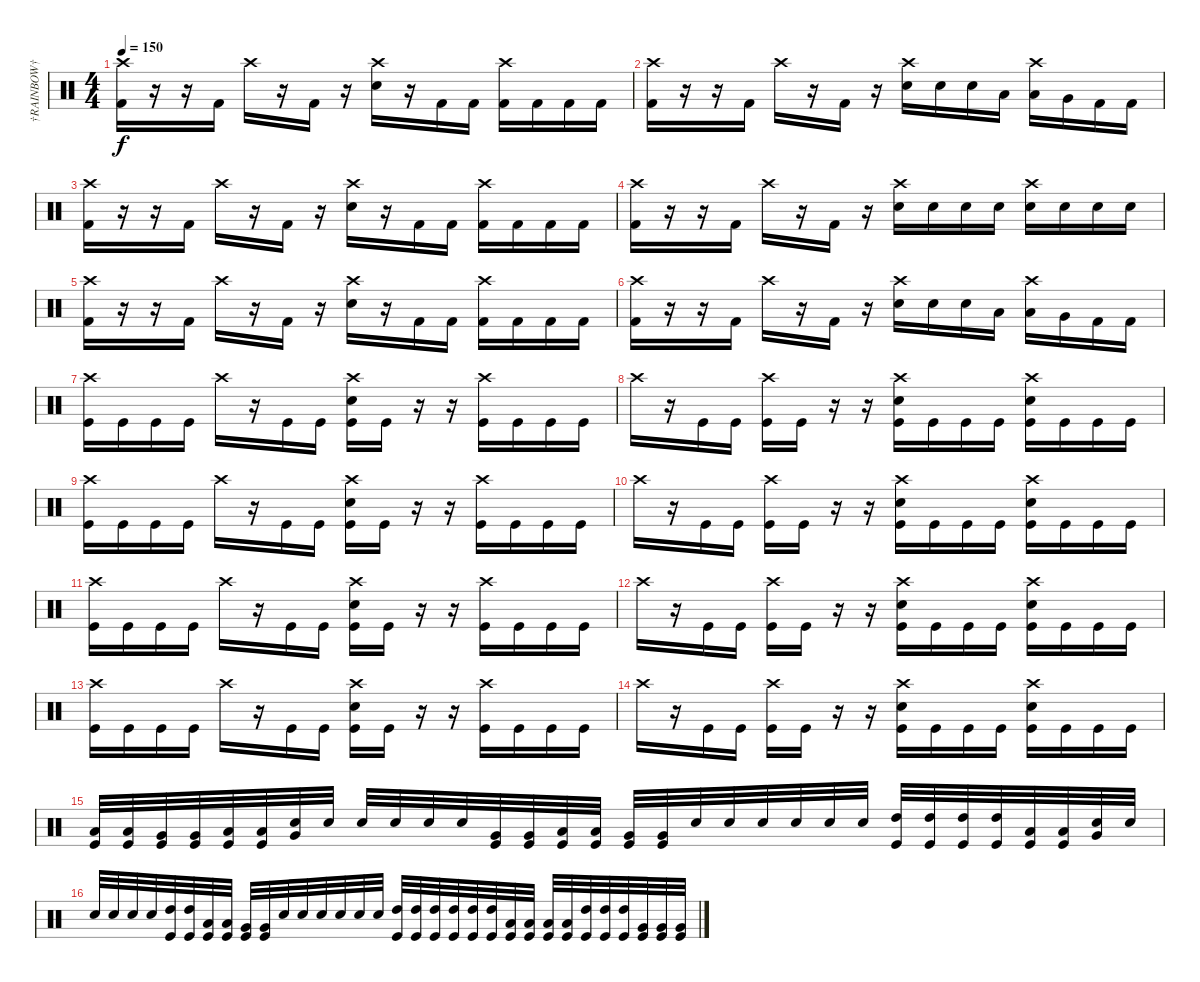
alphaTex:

\track ("†RAINBOW†" "†RAINBOW†") {instrument percussion}
\staff {score}
\articulation defaults
\ts (4 4)
\tempo 150
\clef neutral
\ks c
("Crash high (hit)" "Kick (hit) 2").16{dy f} r.16 r.16 "Kick (hit) 2".16 "Crash high (hit)".16 r.16 "Kick (hit) 2".16 r.16 ("Crash high (hit)" "Electric Snare (hit)").16 r.16 "Kick (hit) 2".16 "Kick (hit) 2".16 ("Crash high (hit)" "Kick (hit) 2").16 "Kick (hit) 2".16 "Kick (hit) 2".16 "Kick (hit) 2".16 |
("Crash high (hit)" "Kick (hit) 2").16 r.16 r.16 "Kick (hit) 2".16 "Crash high (hit)".16 r.16 "Kick (hit) 2".16 r.16 ("Crash high (hit)" "Electric Snare (hit)").16 "Electric Snare (hit)".16 "Electric Snare (hit)".16 "Low Tom (hit)".16 ("Crash high (hit)" "Low Tom (hit)").16 "Very Low Tom (hit)".16 "Kick (hit) 2".16 "Kick (hit) 2".16 |
("Crash high (hit)" "Kick (hit) 2").16 r.16 r.16 "Kick (hit) 2".16 "Crash high (hit)".16 r.16 "Kick (hit) 2".16 r.16 ("Crash high (hit)" "Electric Snare (hit)").16 r.16 "Kick (hit) 2".16 "Kick (hit) 2".16 ("Crash high (hit)" "Kick (hit) 2").16 "Kick (hit) 2".16 "Kick (hit) 2".16 "Kick (hit) 2".16 |
("Crash high (hit)" "Kick (hit) 2").16 r.16 r.16 "Kick (hit) 2".16 "Crash high (hit)".16 r.16 "Kick (hit) 2".16 r.16 ("Crash high (hit)" "Electric Snare (hit)").16 "Electric Snare (hit)".16 "Electric Snare (hit)".16 "Electric Snare (hit)".16 ("Crash high (hit)" "Electric Snare (hit)").16 "Electric Snare (hit)".16 "Electric Snare (hit)".16 "Electric Snare (hit)".16 |
("Crash high (hit)" "Kick (hit) 2").16 r.16 r.16 "Kick (hit) 2".16 "Crash high (hit)".16 r.16 "Kick (hit) 2".16 r.16 ("Crash high (hit)" "Electric Snare (hit)").16 r.16 "Kick (hit) 2".16 "Kick (hit) 2".16 ("Crash high (hit)" "Kick (hit) 2").16 "Kick (hit) 2".16 "Kick (hit) 2".16 "Kick (hit) 2".16 |
("Crash high (hit)" "Kick (hit) 2").16 r.16 r.16 "Kick (hit) 2".16 "Crash high (hit)".16 r.16 "Kick (hit) 2".16 r.16 ("Crash high (hit)" "Electric Snare (hit)").16 "Electric Snare (hit)".16 "Electric Snare (hit)".16 "Low Tom (hit)".16 ("Crash high (hit)" "Low Tom (hit)").16 "Very Low Tom (hit)".16 "Kick (hit) 2".16 "Kick (hit) 2".16 |
("Crash high (hit)" "Kick (hit)").16 "Kick (hit)".16 "Kick (hit)".16 "Kick (hit)".16 "Crash high (hit)".16 r.16 "Kick (hit)".16 "Kick (hit)".16 ("Crash high (hit)" "Electric Snare (hit)" "Kick (hit)").16 "Kick (hit)".16 r.16 r.16 ("Crash high (hit)" "Kick (hit)").16 "Kick (hit)".16 "Kick (hit)".16 "Kick (hit)".16 |
"Crash high (hit)".16 r.16 "Kick (hit)".16 "Kick (hit)".16 ("Crash high (hit)" "Kick (hit)").16 "Kick (hit)".16 r.16 r.16 ("Crash high (hit)" "Electric Snare (hit)" "Kick (hit)").16 "Kick (hit)".16 "Kick (hit)".16 "Kick (hit)".16 ("Crash high (hit)" "Electric Snare (hit)" "Kick (hit)").16 "Kick (hit)".16 "Kick (hit)".16 "Kick (hit)".16 |
("Crash high (hit)" "Kick (hit)").16 "Kick (hit)".16 "Kick (hit)".16 "Kick (hit)".16 "Crash high (hit)".16 r.16 "Kick (hit)".16 "Kick (hit)".16 ("Crash high (hit)" "Electric Snare (hit)" "Kick (hit)").16 "Kick (hit)".16 r.16 r.16 ("Crash high (hit)" "Kick (hit)").16 "Kick (hit)".16 "Kick (hit)".16 "Kick (hit)".16 |
"Crash high (hit)".16 r.16 "Kick (hit)".16 "Kick (hit)".16 ("Crash high (hit)" "Kick (hit)").16 "Kick (hit)".16 r.16 r.16 ("Crash high (hit)" "Electric Snare (hit)" "Kick (hit)").16 "Kick (hit)".16 "Kick (hit)".16 "Kick (hit)".16 ("Crash high (hit)" "Electric Snare (hit)" "Kick (hit)").16 "Kick (hit)".16 "Kick (hit)".16 "Kick (hit)".16 |
("Crash high (hit)" "Kick (hit)").16 "Kick (hit)".16 "Kick (hit)".16 "Kick (hit)".16 "Crash high (hit)".16 r.16 "Kick (hit)".16 "Kick (hit)".16 ("Crash high (hit)" "Electric Snare (hit)" "Kick (hit)").16 "Kick (hit)".16 r.16 r.16 ("Crash high (hit)" "Kick (hit)").16 "Kick (hit)".16 "Kick (hit)".16 "Kick (hit)".16 |
"Crash high (hit)".16 r.16 "Kick (hit)".16 "Kick (hit)".16 ("Crash high (hit)" "Kick (hit)").16 "Kick (hit)".16 r.16 r.16 ("Crash high (hit)" "Electric Snare (hit)" "Kick (hit)").16 "Kick (hit)".16 "Kick (hit)".16 "Kick (hit)".16 ("Crash high (hit)" "Electric Snare (hit)" "Kick (hit)").16 "Kick (hit)".16 "Kick (hit)".16 "Kick (hit)".16 |
("Crash high (hit)" "Kick (hit)").16 "Kick (hit)".16 "Kick (hit)".16 "Kick (hit)".16 "Crash high (hit)".16 r.16 "Kick (hit)".16 "Kick (hit)".16 ("Crash high (hit)" "Electric Snare (hit)" "Kick (hit)").16 "Kick (hit)".16 r.16 r.16 ("Crash high (hit)" "Kick (hit)").16 "Kick (hit)".16 "Kick (hit)".16 "Kick (hit)".16 |
"Crash high (hit)".16 r.16 "Kick (hit)".16 "Kick (hit)".16 ("Crash high (hit)" "Kick (hit)").16 "Kick (hit)".16 r.16 r.16 ("Crash high (hit)" "Electric Snare (hit)" "Kick (hit)").16 "Kick (hit)".16 "Kick (hit)".16 "Kick (hit)".16 ("Crash high (hit)" "Electric Snare (hit)" "Kick (hit)").16 "Kick (hit)".16 "Kick (hit)".16 "Kick (hit)".16 |
("Low Tom (hit)" "Kick (hit)").32 ("Low Tom (hit)" "Kick (hit)").32 ("Very Low Tom (hit)" "Kick (hit)").32 ("Very Low Tom (hit)" "Kick (hit)").32 ("Low Tom (hit)" "Kick (hit)").32 ("Low Tom (hit)" "Kick (hit)").32 ("Very Low Tom (hit)" "Electric Snare (hit)").32 "Electric Snare (hit)".32 "Electric Snare (hit)".32 "Electric Snare (hit)".32 "Electric Snare (hit)".32 "Electric Snare (hit)".32 ("Very Low Tom (hit)" "Kick (hit)").32 ("Very Low Tom (hit)" "Kick (hit)").32 ("Low Floor Tom (hit)" "Kick (hit)").32 ("Low Floor Tom (hit)" "Kick (hit)").32 ("Very Low Tom (hit)" "Kick (hit)").32 ("Very Low Tom (hit)" "Kick (hit)").32 "Electric Snare (hit)".32 "Electric Snare (hit)".32 "Electric Snare (hit)".32 "Electric Snare (hit)".32 "Electric Snare (hit)".32 "Electric Snare (hit)".32 ("High Tom (hit)" "Kick (hit)").32 ("High Tom (hit)" "Kick (hit)").32 ("High Tom (hit)" "Kick (hit)").32 ("High Tom (hit)" "Kick (hit)").32 ("Low Tom (hit)" "Kick (hit)").32 ("Low Tom (hit)" "Kick (hit)").32 ("Very Low Tom (hit)" "Electric Snare (hit)").32 "Electric Snare (hit)".32 |
"Electric Snare (hit)".32 "Electric Snare (hit)".32 "Electric Snare (hit)".32 "Electric Snare (hit)".32 ("High Tom (hit)" "Kick (hit)").32 ("High Tom (hit)" "Kick (hit)").32 ("Low Tom (hit)" "Kick (hit)").32 ("Low Tom (hit)" "Kick (hit)").32 ("Very Low Tom (hit)" "Kick (hit)").32 ("Very Low Tom (hit)" "Kick (hit)").32 "Electric Snare (hit)".32 "Electric Snare (hit)".32 "Electric Snare (hit)".32 "Electric Snare (hit)".32 "Electric Snare (hit)".32 "Electric Snare (hit)".32 ("High Tom (hit)" "Kick (hit)").32 ("High Tom (hit)" "Kick (hit)").32 ("High Tom (hit)" "Kick (hit)").32 ("High Tom (hit)" "Kick (hit)").32 ("High Tom (hit)" "Kick (hit)").32 ("High Tom (hit)" "Kick (hit)").32 ("Low Tom (hit)" "Kick (hit)").32 ("Low Tom (hit)" "Kick (hit)").32 ("Low Tom (hit)" "Kick (hit)").32 ("Low Tom (hit)" "Kick (hit)").32 ("High Tom (hit)" "Kick (hit)").32 ("High Tom (hit)" "Kick (hit)").32 ("High Tom (hit)" "Kick (hit)").32 ("Very Low Tom (hit)" "Kick (hit)").32 ("Very Low Tom (hit)" "Kick (hit)").32 ("Very Low Tom (hit)" "Kick (hit)").32
